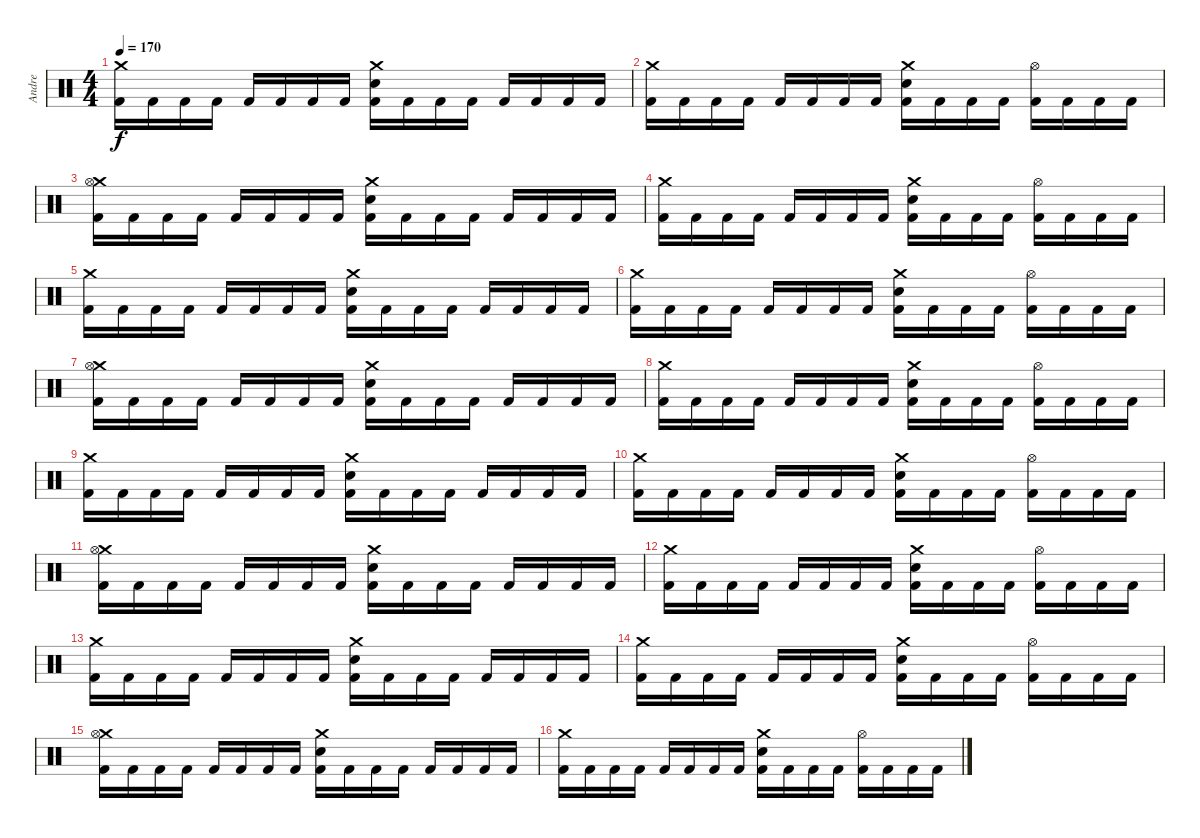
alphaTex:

\track ("Andre" "Andre") {instrument percussion}
\staff {score}
\articulation defaults
\ts (4 4)
\tempo 170
\clef neutral
\ks c
("Crash medium (hit)" "Kick (hit) 2").16{dy f} "Kick (hit) 2".16 "Kick (hit) 2".16 "Kick (hit) 2".16 "Kick (hit) 2".16 "Kick (hit) 2".16 "Kick (hit) 2".16 "Kick (hit) 2".16 ("Crash medium (hit)" "Snare (hit) 2" "Kick (hit) 2").16 "Kick (hit) 2".16 "Kick (hit) 2".16 "Kick (hit) 2".16 "Kick (hit) 2".16 "Kick (hit) 2".16 "Kick (hit) 2".16 "Kick (hit) 2".16 |
("Crash medium (hit)" "Kick (hit) 2").16 "Kick (hit) 2".16 "Kick (hit) 2".16 "Kick (hit) 2".16 "Kick (hit) 2".16 "Kick (hit) 2".16 "Kick (hit) 2".16 "Kick (hit) 2".16 ("Crash medium (hit)" "Snare (hit) 2" "Kick (hit) 2").16 "Kick (hit) 2".16 "Kick (hit) 2".16 "Kick (hit) 2".16 ("Hi-Hat (open)" "Kick (hit) 2").16 "Kick (hit) 2".16 "Kick (hit) 2".16 "Kick (hit) 2".16 |
("Crash medium (hit)" "Hi-Hat (open)" "Kick (hit) 2").16 "Kick (hit) 2".16 "Kick (hit) 2".16 "Kick (hit) 2".16 "Kick (hit) 2".16 "Kick (hit) 2".16 "Kick (hit) 2".16 "Kick (hit) 2".16 ("Crash medium (hit)" "Snare (hit) 2" "Kick (hit) 2").16 "Kick (hit) 2".16 "Kick (hit) 2".16 "Kick (hit) 2".16 "Kick (hit) 2".16 "Kick (hit) 2".16 "Kick (hit) 2".16 "Kick (hit) 2".16 |
("Crash medium (hit)" "Kick (hit) 2").16 "Kick (hit) 2".16 "Kick (hit) 2".16 "Kick (hit) 2".16 "Kick (hit) 2".16 "Kick (hit) 2".16 "Kick (hit) 2".16 "Kick (hit) 2".16 ("Crash medium (hit)" "Snare (hit) 2" "Kick (hit) 2").16 "Kick (hit) 2".16 "Kick (hit) 2".16 "Kick (hit) 2".16 ("Hi-Hat (open)" "Kick (hit) 2").16 "Kick (hit) 2".16 "Kick (hit) 2".16 "Kick (hit) 2".16 |
("Crash medium (hit)" "Kick (hit) 2").16 "Kick (hit) 2".16 "Kick (hit) 2".16 "Kick (hit) 2".16 "Kick (hit) 2".16 "Kick (hit) 2".16 "Kick (hit) 2".16 "Kick (hit) 2".16 ("Crash medium (hit)" "Snare (hit) 2" "Kick (hit) 2").16 "Kick (hit) 2".16 "Kick (hit) 2".16 "Kick (hit) 2".16 "Kick (hit) 2".16 "Kick (hit) 2".16 "Kick (hit) 2".16 "Kick (hit) 2".16 |
("Crash medium (hit)" "Kick (hit) 2").16 "Kick (hit) 2".16 "Kick (hit) 2".16 "Kick (hit) 2".16 "Kick (hit) 2".16 "Kick (hit) 2".16 "Kick (hit) 2".16 "Kick (hit) 2".16 ("Crash medium (hit)" "Snare (hit) 2" "Kick (hit) 2").16 "Kick (hit) 2".16 "Kick (hit) 2".16 "Kick (hit) 2".16 ("Hi-Hat (open)" "Kick (hit) 2").16 "Kick (hit) 2".16 "Kick (hit) 2".16 "Kick (hit) 2".16 |
("Crash medium (hit)" "Hi-Hat (open)" "Kick (hit) 2").16 "Kick (hit) 2".16 "Kick (hit) 2".16 "Kick (hit) 2".16 "Kick (hit) 2".16 "Kick (hit) 2".16 "Kick (hit) 2".16 "Kick (hit) 2".16 ("Crash medium (hit)" "Snare (hit) 2" "Kick (hit) 2").16 "Kick (hit) 2".16 "Kick (hit) 2".16 "Kick (hit) 2".16 "Kick (hit) 2".16 "Kick (hit) 2".16 "Kick (hit) 2".16 "Kick (hit) 2".16 |
("Crash medium (hit)" "Kick (hit) 2").16 "Kick (hit) 2".16 "Kick (hit) 2".16 "Kick (hit) 2".16 "Kick (hit) 2".16 "Kick (hit) 2".16 "Kick (hit) 2".16 "Kick (hit) 2".16 ("Crash medium (hit)" "Snare (hit) 2" "Kick (hit) 2").16 "Kick (hit) 2".16 "Kick (hit) 2".16 "Kick (hit) 2".16 ("Hi-Hat (open)" "Kick (hit) 2").16 "Kick (hit) 2".16 "Kick (hit) 2".16 "Kick (hit) 2".16 |
("Crash medium (hit)" "Kick (hit) 2").16 "Kick (hit) 2".16 "Kick (hit) 2".16 "Kick (hit) 2".16 "Kick (hit) 2".16 "Kick (hit) 2".16 "Kick (hit) 2".16 "Kick (hit) 2".16 ("Crash medium (hit)" "Snare (hit) 2" "Kick (hit) 2").16 "Kick (hit) 2".16 "Kick (hit) 2".16 "Kick (hit) 2".16 "Kick (hit) 2".16 "Kick (hit) 2".16 "Kick (hit) 2".16 "Kick (hit) 2".16 |
("Crash medium (hit)" "Kick (hit) 2").16 "Kick (hit) 2".16 "Kick (hit) 2".16 "Kick (hit) 2".16 "Kick (hit) 2".16 "Kick (hit) 2".16 "Kick (hit) 2".16 "Kick (hit) 2".16 ("Crash medium (hit)" "Snare (hit) 2" "Kick (hit) 2").16 "Kick (hit) 2".16 "Kick (hit) 2".16 "Kick (hit) 2".16 ("Hi-Hat (open)" "Kick (hit) 2").16 "Kick (hit) 2".16 "Kick (hit) 2".16 "Kick (hit) 2".16 |
("Crash medium (hit)" "Hi-Hat (open)" "Kick (hit) 2").16 "Kick (hit) 2".16 "Kick (hit) 2".16 "Kick (hit) 2".16 "Kick (hit) 2".16 "Kick (hit) 2".16 "Kick (hit) 2".16 "Kick (hit) 2".16 ("Crash medium (hit)" "Snare (hit) 2" "Kick (hit) 2").16 "Kick (hit) 2".16 "Kick (hit) 2".16 "Kick (hit) 2".16 "Kick (hit) 2".16 "Kick (hit) 2".16 "Kick (hit) 2".16 "Kick (hit) 2".16 |
("Crash medium (hit)" "Kick (hit) 2").16 "Kick (hit) 2".16 "Kick (hit) 2".16 "Kick (hit) 2".16 "Kick (hit) 2".16 "Kick (hit) 2".16 "Kick (hit) 2".16 "Kick (hit) 2".16 ("Crash medium (hit)" "Snare (hit) 2" "Kick (hit) 2").16 "Kick (hit) 2".16 "Kick (hit) 2".16 "Kick (hit) 2".16 ("Hi-Hat (open)" "Kick (hit) 2").16 "Kick (hit) 2".16 "Kick (hit) 2".16 "Kick (hit) 2".16 |
("Crash medium (hit)" "Kick (hit) 2").16 "Kick (hit) 2".16 "Kick (hit) 2".16 "Kick (hit) 2".16 "Kick (hit) 2".16 "Kick (hit) 2".16 "Kick (hit) 2".16 "Kick (hit) 2".16 ("Crash medium (hit)" "Snare (hit) 2" "Kick (hit) 2").16 "Kick (hit) 2".16 "Kick (hit) 2".16 "Kick (hit) 2".16 "Kick (hit) 2".16 "Kick (hit) 2".16 "Kick (hit) 2".16 "Kick (hit) 2".16 |
("Crash medium (hit)" "Kick (hit) 2").16 "Kick (hit) 2".16 "Kick (hit) 2".16 "Kick (hit) 2".16 "Kick (hit) 2".16 "Kick (hit) 2".16 "Kick (hit) 2".16 "Kick (hit) 2".16 ("Crash medium (hit)" "Snare (hit) 2" "Kick (hit) 2").16 "Kick (hit) 2".16 "Kick (hit) 2".16 "Kick (hit) 2".16 ("Hi-Hat (open)" "Kick (hit) 2").16 "Kick (hit) 2".16 "Kick (hit) 2".16 "Kick (hit) 2".16 |
("Crash medium (hit)" "Hi-Hat (open)" "Kick (hit) 2").16 "Kick (hit) 2".16 "Kick (hit) 2".16 "Kick (hit) 2".16 "Kick (hit) 2".16 "Kick (hit) 2".16 "Kick (hit) 2".16 "Kick (hit) 2".16 ("Crash medium (hit)" "Snare (hit) 2" "Kick (hit) 2").16 "Kick (hit) 2".16 "Kick (hit) 2".16 "Kick (hit) 2".16 "Kick (hit) 2".16 "Kick (hit) 2".16 "Kick (hit) 2".16 "Kick (hit) 2".16 |
("Crash medium (hit)" "Kick (hit) 2").16 "Kick (hit) 2".16 "Kick (hit) 2".16 "Kick (hit) 2".16 "Kick (hit) 2".16 "Kick (hit) 2".16 "Kick (hit) 2".16 "Kick (hit) 2".16 ("Crash medium (hit)" "Snare (hit) 2" "Kick (hit) 2").16 "Kick (hit) 2".16 "Kick (hit) 2".16 "Kick (hit) 2".16 ("Hi-Hat (open)" "Kick (hit) 2").16 "Kick (hit) 2".16 "Kick (hit) 2".16 "Kick (hit) 2".16
